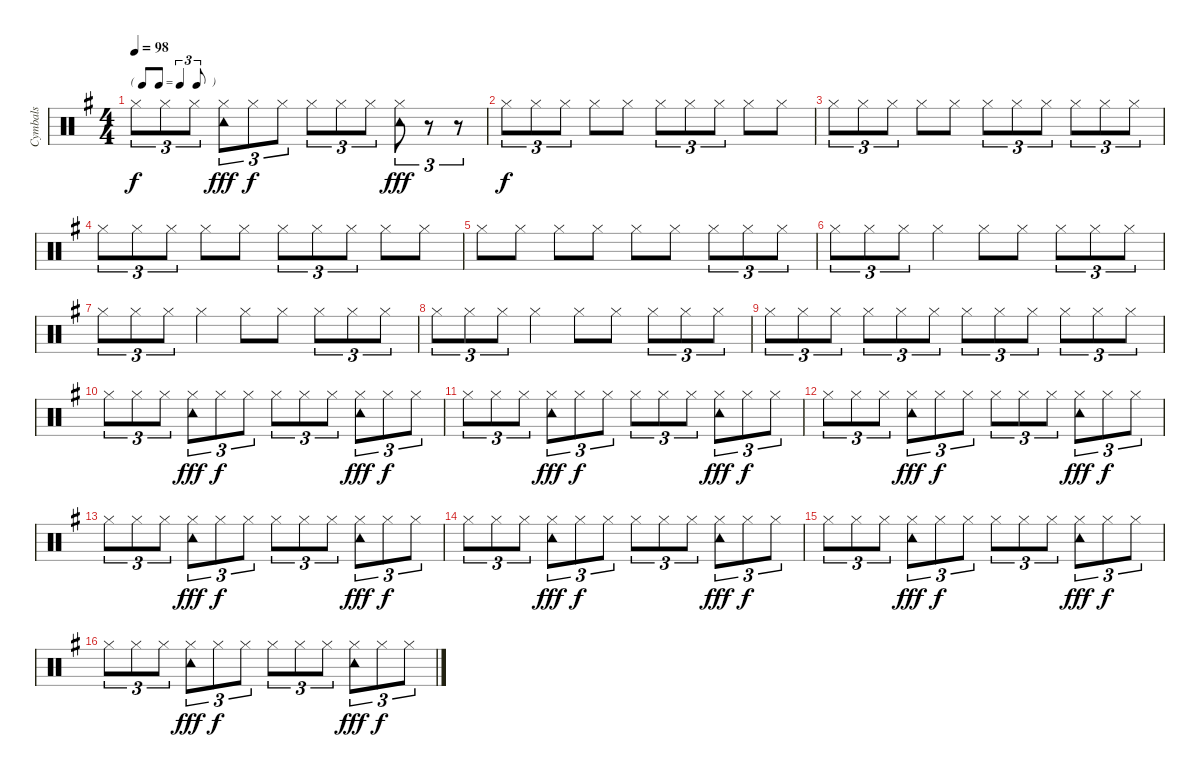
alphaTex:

\track ("Cymbals" "Cymbals") {instrument percussion}
\staff {score}
\articulation defaults
\ts (4 4)
\tf triplet8th
\tempo 98
\clef neutral
\ks g "Hi-Hat (closed)".8{tu (3 2) dy f} "Hi-Hat (closed)".8{tu (3 2)} "Hi-Hat (closed)".8{tu (3 2)}
("Hi-Hat (closed)" "Tambourine (hit)").8{tu (3 2) dy fff} "Hi-Hat (closed)".8{tu (3 2) dy f} "Hi-Hat (closed)".8{tu (3 2)} "Hi-Hat (closed)".8{tu (3 2)} "Hi-Hat (closed)".8{tu (3 2)} "Hi-Hat (closed)".8{tu (3 2)} ("Hi-Hat (closed)" "Tambourine (hit)").8{tu (3 2) dy fff} r.8{tu (3 2)} r.8{tu (3 2)} |
"Hi-Hat (closed)".8{tu (3 2) dy f} "Hi-Hat (closed)".8{tu (3 2)} "Hi-Hat (closed)".8{tu (3 2)} "Hi-Hat (closed)".8 "Hi-Hat (closed)".8 "Hi-Hat (closed)".8{tu (3 2)} "Hi-Hat (closed)".8{tu (3 2)} "Hi-Hat (closed)".8{tu (3 2)} "Hi-Hat (closed)".8 "Hi-Hat (closed)".8 |
"Hi-Hat (closed)".8{tu (3 2)} "Hi-Hat (closed)".8{tu (3 2)} "Hi-Hat (closed)".8{tu (3 2)} "Hi-Hat (closed)".8 "Hi-Hat (closed)".8 "Hi-Hat (closed)".8{tu (3 2)} "Hi-Hat (closed)".8{tu (3 2)} "Hi-Hat (closed)".8{tu (3 2)} "Hi-Hat (closed)".8{tu (3 2)} "Hi-Hat (closed)".8{tu (3 2)} "Hi-Hat (closed)".8{tu (3 2)} |
"Hi-Hat (closed)".8{tu (3 2)} "Hi-Hat (closed)".8{tu (3 2)} "Hi-Hat (closed)".8{tu (3 2)} "Hi-Hat (closed)".8 "Hi-Hat (closed)".8 "Hi-Hat (closed)".8{tu (3 2)} "Hi-Hat (closed)".8{tu (3 2)} "Hi-Hat (closed)".8{tu (3 2)} "Hi-Hat (closed)".8 "Hi-Hat (closed)".8 |
"Hi-Hat (closed)".8 "Hi-Hat (closed)".8 "Hi-Hat (closed)".8 "Hi-Hat (closed)".8 "Hi-Hat (closed)".8 "Hi-Hat (closed)".8 "Hi-Hat (closed)".8{tu (3 2)} "Hi-Hat (closed)".8{tu (3 2)} "Hi-Hat (closed)".8{tu (3 2)} |
"Hi-Hat (closed)".8{tu (3 2)} "Hi-Hat (closed)".8{tu (3 2)} "Hi-Hat (closed)".8{tu (3 2)} "Hi-Hat (closed)".4 "Hi-Hat (closed)".8 "Hi-Hat (closed)".8 "Hi-Hat (closed)".8{tu (3 2)} "Hi-Hat (closed)".8{tu (3 2)} "Hi-Hat (closed)".8{tu (3 2)} |
"Hi-Hat (closed)".8{tu (3 2)} "Hi-Hat (closed)".8{tu (3 2)} "Hi-Hat (closed)".8{tu (3 2)} "Hi-Hat (closed)".4 "Hi-Hat (closed)".8 "Hi-Hat (closed)".8 "Hi-Hat (closed)".8{tu (3 2)} "Hi-Hat (closed)".8{tu (3 2)} "Hi-Hat (closed)".8{tu (3 2)} |
"Hi-Hat (closed)".8{tu (3 2)} "Hi-Hat (closed)".8{tu (3 2)} "Hi-Hat (closed)".8{tu (3 2)} "Hi-Hat (closed)".4 "Hi-Hat (closed)".8 "Hi-Hat (closed)".8 "Hi-Hat (closed)".8{tu (3 2)} "Hi-Hat (closed)".8{tu (3 2)} "Hi-Hat (closed)".8{tu (3 2)} |
"Hi-Hat (closed)".8{tu (3 2)} "Hi-Hat (closed)".8{tu (3 2)} "Hi-Hat (closed)".8{tu (3 2)} "Hi-Hat (closed)".8{tu (3 2)} "Hi-Hat (closed)".8{tu (3 2)} "Hi-Hat (closed)".8{tu (3 2)} "Hi-Hat (closed)".8{tu (3 2)} "Hi-Hat (closed)".8{tu (3 2)} "Hi-Hat (closed)".8{tu (3 2)} "Hi-Hat (closed)".8{tu (3 2)} "Hi-Hat (closed)".8{tu (3 2)} "Hi-Hat (closed)".8{tu (3 2)} |
"Hi-Hat (closed)".8{tu (3 2)} "Hi-Hat (closed)".8{tu (3 2)} "Hi-Hat (closed)".8{tu (3 2)} ("Hi-Hat (closed)" "Tambourine (hit)").8{tu (3 2) dy fff} "Hi-Hat (closed)".8{tu (3 2) dy f} "Hi-Hat (closed)".8{tu (3 2)} "Hi-Hat (closed)".8{tu (3 2)} "Hi-Hat (closed)".8{tu (3 2)} "Hi-Hat (closed)".8{tu (3 2)} ("Hi-Hat (closed)" "Tambourine (hit)").8{tu (3 2) dy fff} "Hi-Hat (closed)".8{tu (3 2) dy f} "Hi-Hat (closed)".8{tu (3 2)} |
"Hi-Hat (closed)".8{tu (3 2)} "Hi-Hat (closed)".8{tu (3 2)} "Hi-Hat (closed)".8{tu (3 2)} ("Hi-Hat (closed)" "Tambourine (hit)").8{tu (3 2) dy fff} "Hi-Hat (closed)".8{tu (3 2) dy f} "Hi-Hat (closed)".8{tu (3 2)} "Hi-Hat (closed)".8{tu (3 2)} "Hi-Hat (closed)".8{tu (3 2)} "Hi-Hat (closed)".8{tu (3 2)} ("Hi-Hat (closed)" "Tambourine (hit)").8{tu (3 2) dy fff} "Hi-Hat (closed)".8{tu (3 2) dy f} "Hi-Hat (closed)".8{tu (3 2)} |
"Hi-Hat (closed)".8{tu (3 2)} "Hi-Hat (closed)".8{tu (3 2)} "Hi-Hat (closed)".8{tu (3 2)} ("Hi-Hat (closed)" "Tambourine (hit)").8{tu (3 2) dy fff} "Hi-Hat (closed)".8{tu (3 2) dy f} "Hi-Hat (closed)".8{tu (3 2)} "Hi-Hat (closed)".8{tu (3 2)} "Hi-Hat (closed)".8{tu (3 2)} "Hi-Hat (closed)".8{tu (3 2)} ("Hi-Hat (closed)" "Tambourine (hit)").8{tu (3 2) dy fff} "Hi-Hat (closed)".8{tu (3 2) dy f} "Hi-Hat (closed)".8{tu (3 2)} |
"Hi-Hat (closed)".8{tu (3 2)} "Hi-Hat (closed)".8{tu (3 2)} "Hi-Hat (closed)".8{tu (3 2)} ("Hi-Hat (closed)" "Tambourine (hit)").8{tu (3 2) dy fff} "Hi-Hat (closed)".8{tu (3 2) dy f} "Hi-Hat (closed)".8{tu (3 2)} "Hi-Hat (closed)".8{tu (3 2)} "Hi-Hat (closed)".8{tu (3 2)} "Hi-Hat (closed)".8{tu (3 2)} ("Hi-Hat (closed)" "Tambourine (hit)").8{tu (3 2) dy fff} "Hi-Hat (closed)".8{tu (3 2) dy f} "Hi-Hat (closed)".8{tu (3 2)} |
"Hi-Hat (closed)".8{tu (3 2)} "Hi-Hat (closed)".8{tu (3 2)} "Hi-Hat (closed)".8{tu (3 2)} ("Hi-Hat (closed)" "Tambourine (hit)").8{tu (3 2) dy fff} "Hi-Hat (closed)".8{tu (3 2) dy f} "Hi-Hat (closed)".8{tu (3 2)} "Hi-Hat (closed)".8{tu (3 2)} "Hi-Hat (closed)".8{tu (3 2)} "Hi-Hat (closed)".8{tu (3 2)} ("Hi-Hat (closed)" "Tambourine (hit)").8{tu (3 2) dy fff} "Hi-Hat (closed)".8{tu (3 2) dy f} "Hi-Hat (closed)".8{tu (3 2)} |
"Hi-Hat (closed)".8{tu (3 2)} "Hi-Hat (closed)".8{tu (3 2)} "Hi-Hat (closed)".8{tu (3 2)} ("Hi-Hat (closed)" "Tambourine (hit)").8{tu (3 2) dy fff} "Hi-Hat (closed)".8{tu (3 2) dy f} "Hi-Hat (closed)".8{tu (3 2)} "Hi-Hat (closed)".8{tu (3 2)} "Hi-Hat (closed)".8{tu (3 2)} "Hi-Hat (closed)".8{tu (3 2)} ("Hi-Hat (closed)" "Tambourine (hit)").8{tu (3 2) dy fff} "Hi-Hat (closed)".8{tu (3 2) dy f} "Hi-Hat (closed)".8{tu (3 2)} |
"Hi-Hat (closed)".8{tu (3 2)} "Hi-Hat (closed)".8{tu (3 2)} "Hi-Hat (closed)".8{tu (3 2)} ("Hi-Hat (closed)" "Tambourine (hit)").8{tu (3 2) dy fff} "Hi-Hat (closed)".8{tu (3 2) dy f} "Hi-Hat (closed)".8{tu (3 2)} "Hi-Hat (closed)".8{tu (3 2)} "Hi-Hat (closed)".8{tu (3 2)} "Hi-Hat (closed)".8{tu (3 2)} ("Hi-Hat (closed)" "Tambourine (hit)").8{tu (3 2) dy fff} "Hi-Hat (closed)".8{tu (3 2) dy f} "Hi-Hat (closed)".8{tu (3 2)}
